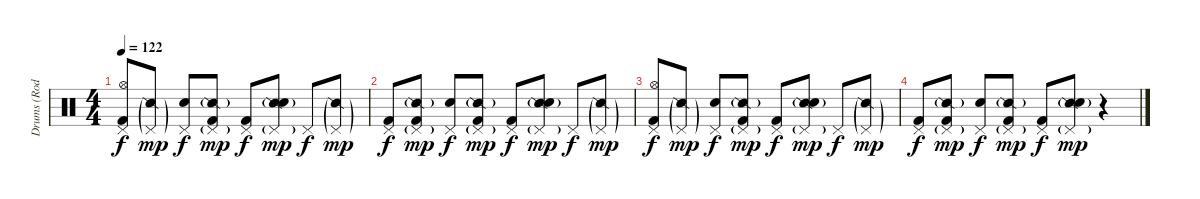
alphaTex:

\track ("Drums (Rod Bourdon)" "Drums (Rod") {instrument percussion}
\staff {score}
\articulation defaults
\ts (4 4)
\tempo 122
\clef neutral
\ks c
("Pedal Hi-Hat (hit)" "Hi-Hat (open)" "Kick (hit) 2").8{dy f} ("Snare (side stick) 2"{g} "Pedal Hi-Hat (hit)"{g}).8{dy mp} ("Pedal Hi-Hat (hit)" "Electric Snare (hit)").8{dy f} ("Snare (side stick) 2"{g} "Pedal Hi-Hat (hit)"{g} "Kick (hit) 2").8{dy mp} ("Pedal Hi-Hat (hit)" "Kick (hit) 2").8{dy f} ("Snare (side stick) 2"{g} "Pedal Hi-Hat (hit)"{g} "Electric Snare (hit)").8{dy mp} "Pedal Hi-Hat (hit)".8{dy f} ("Snare (side stick) 2"{g} "Pedal Hi-Hat (hit)"{g}).8{dy mp} |
("Pedal Hi-Hat (hit)" "Kick (hit) 2").8{dy f} ("Snare (side stick) 2"{g} "Pedal Hi-Hat (hit)"{g} "Kick (hit) 2").8{dy mp} ("Pedal Hi-Hat (hit)" "Electric Snare (hit)").8{dy f} ("Snare (side stick) 2"{g} "Pedal Hi-Hat (hit)"{g} "Kick (hit) 2").8{dy mp} ("Pedal Hi-Hat (hit)" "Kick (hit) 2").8{dy f} ("Snare (side stick) 2"{g} "Pedal Hi-Hat (hit)"{g} "Electric Snare (hit)").8{dy mp} "Pedal Hi-Hat (hit)".8{dy f} ("Snare (side stick) 2"{g} "Pedal Hi-Hat (hit)"{g}).8{dy mp} |
("Pedal Hi-Hat (hit)" "Hi-Hat (open)" "Kick (hit) 2").8{dy f} ("Snare (side stick) 2"{g} "Pedal Hi-Hat (hit)"{g}).8{dy mp} ("Pedal Hi-Hat (hit)" "Electric Snare (hit)").8{dy f} ("Snare (side stick) 2"{g} "Pedal Hi-Hat (hit)"{g} "Kick (hit) 2").8{dy mp} ("Pedal Hi-Hat (hit)" "Kick (hit) 2").8{dy f} ("Snare (side stick) 2"{g} "Pedal Hi-Hat (hit)"{g} "Electric Snare (hit)").8{dy mp} "Pedal Hi-Hat (hit)".8{dy f} ("Snare (side stick) 2"{g} "Pedal Hi-Hat (hit)"{g}).8{dy mp} |
("Pedal Hi-Hat (hit)" "Kick (hit) 2").8{dy f} ("Snare (side stick) 2"{g} "Pedal Hi-Hat (hit)"{g} "Kick (hit) 2").8{dy mp} ("Pedal Hi-Hat (hit)" "Electric Snare (hit)").8{dy f} ("Snare (side stick) 2"{g} "Pedal Hi-Hat (hit)"{g} "Kick (hit) 2").8{dy mp} ("Pedal Hi-Hat (hit)" "Kick (hit) 2").8{dy f} ("Snare (side stick) 2"{g} "Pedal Hi-Hat (hit)"{g} "Electric Snare (hit)").8{dy mp} r.4
